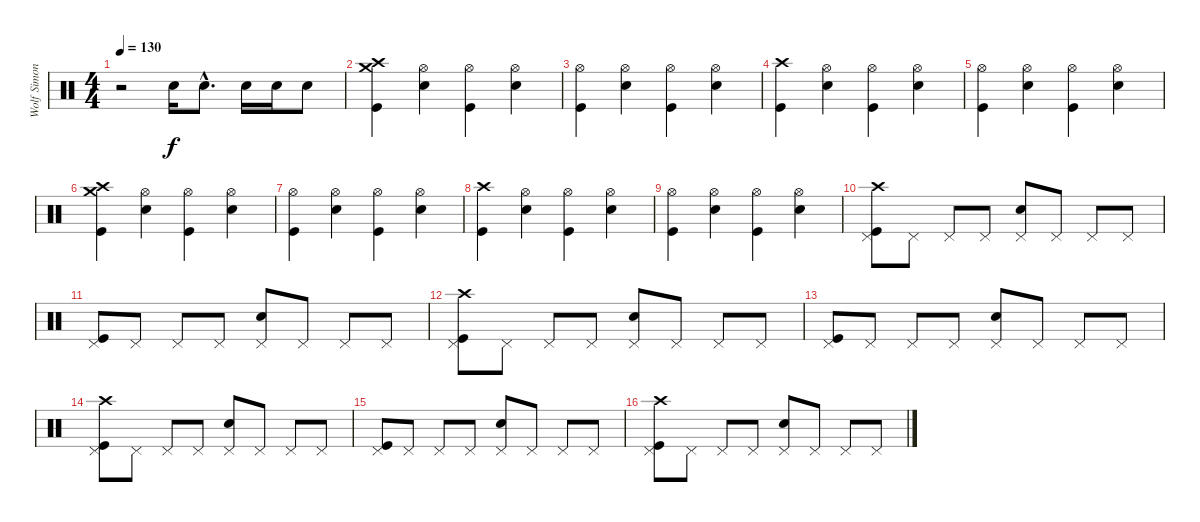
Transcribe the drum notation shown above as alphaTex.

\track ("Wolf Simon" "Wolf Simon") {instrument percussion}
\staff {score}
\articulation defaults
\ts (4 4)
\tempo 130
\clef neutral
\ks c
r.2{dy f} "Electric Snare (hit)".16 "Electric Snare (hit)"{hac}.8{d} "Electric Snare (hit)".16 "Electric Snare (hit)".16 "Electric Snare (hit)".8 |
("Crash medium (hit)" "Crash high (hit)" "Kick (hit)").4 ("Hi-Hat (open)" "Electric Snare (hit)").4 ("Hi-Hat (open)" "Kick (hit)").4 ("Hi-Hat (open)" "Electric Snare (hit)").4 |
("Hi-Hat (open)" "Kick (hit)").4 ("Hi-Hat (open)" "Electric Snare (hit)").4 ("Hi-Hat (open)" "Kick (hit)").4 ("Hi-Hat (open)" "Electric Snare (hit)").4 |
("Crash high (hit)" "Kick (hit)").4 ("Hi-Hat (open)" "Electric Snare (hit)").4 ("Hi-Hat (open)" "Kick (hit)").4 ("Hi-Hat (open)" "Electric Snare (hit)").4 |
("Hi-Hat (open)" "Kick (hit)").4 ("Hi-Hat (open)" "Electric Snare (hit)").4 ("Hi-Hat (open)" "Kick (hit)").4 ("Hi-Hat (open)" "Electric Snare (hit)").4 |
("Crash medium (hit)" "Crash high (hit)" "Kick (hit)").4 ("Hi-Hat (open)" "Electric Snare (hit)").4 ("Hi-Hat (open)" "Kick (hit)").4 ("Hi-Hat (open)" "Electric Snare (hit)").4 |
("Hi-Hat (open)" "Kick (hit)").4 ("Hi-Hat (open)" "Electric Snare (hit)").4 ("Hi-Hat (open)" "Kick (hit)").4 ("Hi-Hat (open)" "Electric Snare (hit)").4 |
("Crash high (hit)" "Kick (hit)").4 ("Hi-Hat (open)" "Electric Snare (hit)").4 ("Hi-Hat (open)" "Kick (hit)").4 ("Hi-Hat (open)" "Electric Snare (hit)").4 |
("Hi-Hat (open)" "Kick (hit)").4 ("Hi-Hat (open)" "Electric Snare (hit)").4 ("Hi-Hat (open)" "Kick (hit)").4 ("Hi-Hat (open)" "Electric Snare (hit)").4 |
("Crash high (hit)" "Pedal Hi-Hat (hit)" "Kick (hit)").8 "Pedal Hi-Hat (hit)".8 "Pedal Hi-Hat (hit)".8 "Pedal Hi-Hat (hit)".8 ("Pedal Hi-Hat (hit)" "Electric Snare (hit)").8 "Pedal Hi-Hat (hit)".8 "Pedal Hi-Hat (hit)".8 "Pedal Hi-Hat (hit)".8 |
("Pedal Hi-Hat (hit)" "Kick (hit)").8 "Pedal Hi-Hat (hit)".8 "Pedal Hi-Hat (hit)".8 "Pedal Hi-Hat (hit)".8 ("Pedal Hi-Hat (hit)" "Electric Snare (hit)").8 "Pedal Hi-Hat (hit)".8 "Pedal Hi-Hat (hit)".8 "Pedal Hi-Hat (hit)".8 |
("Crash high (hit)" "Pedal Hi-Hat (hit)" "Kick (hit)").8 "Pedal Hi-Hat (hit)".8 "Pedal Hi-Hat (hit)".8 "Pedal Hi-Hat (hit)".8 ("Pedal Hi-Hat (hit)" "Electric Snare (hit)").8 "Pedal Hi-Hat (hit)".8 "Pedal Hi-Hat (hit)".8 "Pedal Hi-Hat (hit)".8 |
("Pedal Hi-Hat (hit)" "Kick (hit)").8 "Pedal Hi-Hat (hit)".8 "Pedal Hi-Hat (hit)".8 "Pedal Hi-Hat (hit)".8 ("Pedal Hi-Hat (hit)" "Electric Snare (hit)").8 "Pedal Hi-Hat (hit)".8 "Pedal Hi-Hat (hit)".8 "Pedal Hi-Hat (hit)".8 |
("Crash high (hit)" "Pedal Hi-Hat (hit)" "Kick (hit)").8 "Pedal Hi-Hat (hit)".8 "Pedal Hi-Hat (hit)".8 "Pedal Hi-Hat (hit)".8 ("Pedal Hi-Hat (hit)" "Electric Snare (hit)").8 "Pedal Hi-Hat (hit)".8 "Pedal Hi-Hat (hit)".8 "Pedal Hi-Hat (hit)".8 |
("Pedal Hi-Hat (hit)" "Kick (hit)").8 "Pedal Hi-Hat (hit)".8 "Pedal Hi-Hat (hit)".8 "Pedal Hi-Hat (hit)".8 ("Pedal Hi-Hat (hit)" "Electric Snare (hit)").8 "Pedal Hi-Hat (hit)".8 "Pedal Hi-Hat (hit)".8 "Pedal Hi-Hat (hit)".8 |
("Crash high (hit)" "Pedal Hi-Hat (hit)" "Kick (hit)").8 "Pedal Hi-Hat (hit)".8 "Pedal Hi-Hat (hit)".8 "Pedal Hi-Hat (hit)".8 ("Pedal Hi-Hat (hit)" "Electric Snare (hit)").8 "Pedal Hi-Hat (hit)".8 "Pedal Hi-Hat (hit)".8 "Pedal Hi-Hat (hit)".8
